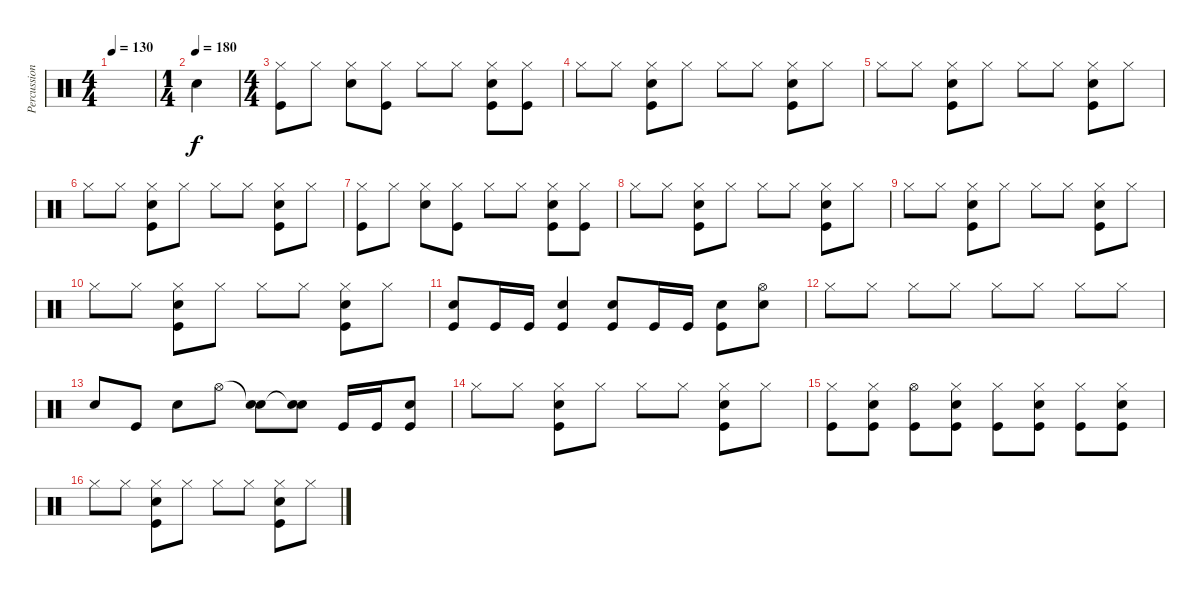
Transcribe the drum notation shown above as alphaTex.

\track ("Percussions" "Percussion") {instrument percussion}
\staff {score}
\articulation defaults
\ts (4 4)
\tempo 130
\tempo 180
\tempo 130
\clef neutral
\ks c
|
\ts (1 4)
\tempo (180)
"Snare (hit)".4 |
\ts (4 4)
("Hi-Hat (closed)" "Kick (hit)").8 "Hi-Hat (closed)".8 ("Hi-Hat (closed)" "Electric Snare (hit)").8 ("Hi-Hat (closed)" "Kick (hit)").8 "Hi-Hat (closed)".8 "Hi-Hat (closed)".8 ("Hi-Hat (closed)" "Electric Snare (hit)" "Kick (hit)").8 ("Hi-Hat (closed)" "Kick (hit)").8 |
"Hi-Hat (closed)".8 "Hi-Hat (closed)".8 ("Hi-Hat (closed)" "Electric Snare (hit)" "Kick (hit)").8 "Hi-Hat (closed)".8 "Hi-Hat (closed)".8 "Hi-Hat (closed)".8 ("Hi-Hat (closed)" "Electric Snare (hit)" "Kick (hit)").8 "Hi-Hat (closed)".8 |
"Hi-Hat (closed)".8 "Hi-Hat (closed)".8 ("Hi-Hat (closed)" "Electric Snare (hit)" "Kick (hit)").8 "Hi-Hat (closed)".8 "Hi-Hat (closed)".8 "Hi-Hat (closed)".8 ("Hi-Hat (closed)" "Electric Snare (hit)" "Kick (hit)").8 "Hi-Hat (closed)".8 |
"Hi-Hat (closed)".8 "Hi-Hat (closed)".8 ("Hi-Hat (closed)" "Electric Snare (hit)" "Kick (hit)").8 "Hi-Hat (closed)".8 "Hi-Hat (closed)".8 "Hi-Hat (closed)".8 ("Hi-Hat (closed)" "Electric Snare (hit)" "Kick (hit)").8 "Hi-Hat (closed)".8 |
("Hi-Hat (closed)" "Kick (hit)").8 "Hi-Hat (closed)".8 ("Hi-Hat (closed)" "Electric Snare (hit)").8 ("Hi-Hat (closed)" "Kick (hit)").8 "Hi-Hat (closed)".8 "Hi-Hat (closed)".8 ("Hi-Hat (closed)" "Electric Snare (hit)" "Kick (hit)").8 ("Hi-Hat (closed)" "Kick (hit)").8 |
"Hi-Hat (closed)".8 "Hi-Hat (closed)".8 ("Hi-Hat (closed)" "Electric Snare (hit)" "Kick (hit)").8 "Hi-Hat (closed)".8 "Hi-Hat (closed)".8 "Hi-Hat (closed)".8 ("Hi-Hat (closed)" "Electric Snare (hit)" "Kick (hit)").8 "Hi-Hat (closed)".8 |
"Hi-Hat (closed)".8 "Hi-Hat (closed)".8 ("Hi-Hat (closed)" "Electric Snare (hit)" "Kick (hit)").8 "Hi-Hat (closed)".8 "Hi-Hat (closed)".8 "Hi-Hat (closed)".8 ("Hi-Hat (closed)" "Electric Snare (hit)" "Kick (hit)").8 "Hi-Hat (closed)".8 |
"Hi-Hat (closed)".8 "Hi-Hat (closed)".8 ("Hi-Hat (closed)" "Electric Snare (hit)" "Kick (hit)").8 "Hi-Hat (closed)".8 "Hi-Hat (closed)".8 "Hi-Hat (closed)".8 ("Hi-Hat (closed)" "Electric Snare (hit)" "Kick (hit)").8 "Hi-Hat (closed)".8 |
("Electric Snare (hit)" "Kick (hit)").8 "Kick (hit)".16 "Kick (hit)".16 ("Electric Snare (hit)" "Kick (hit)").4 ("Electric Snare (hit)" "Kick (hit)").8 "Kick (hit)".16 "Kick (hit)".16 ("Electric Snare (hit)" "Kick (hit)").8 ("Hi-Hat (open)" "Electric Snare (hit)").8 |
"Hi-Hat (closed)".8 "Hi-Hat (closed)".8 "Hi-Hat (closed)".8 "Hi-Hat (closed)".8 "Hi-Hat (closed)".8 "Hi-Hat (closed)".8 "Hi-Hat (closed)".8 "Hi-Hat (closed)".8 |
"Electric Snare (hit)".8 "Kick (hit)".8 "Electric Snare (hit)".8 "Hi-Hat (open)".8 ("Snare (hit)"{t} "Electric Snare (hit)").8 ("Snare (hit)"{t} "Electric Snare (hit)").8 "Kick (hit)".16 "Kick (hit)".16 ("Electric Snare (hit)" "Kick (hit)").8 |
"Hi-Hat (closed)".8 "Hi-Hat (closed)".8 ("Hi-Hat (closed)" "Electric Snare (hit)" "Kick (hit)").8 "Hi-Hat (closed)".8 "Hi-Hat (closed)".8 "Hi-Hat (closed)".8 ("Hi-Hat (closed)" "Electric Snare (hit)" "Kick (hit)").8 "Hi-Hat (closed)".8 |
("Hi-Hat (closed)" "Kick (hit)").8 ("Electric Snare (hit)" "Hi-Hat (closed)" "Kick (hit)").8 ("Hi-Hat (open)" "Kick (hit)").8 ("Electric Snare (hit)" "Hi-Hat (closed)" "Kick (hit)").8 ("Hi-Hat (closed)" "Kick (hit)").8 ("Electric Snare (hit)" "Hi-Hat (closed)" "Kick (hit)").8 ("Hi-Hat (closed)" "Kick (hit)").8 ("Electric Snare (hit)" "Hi-Hat (closed)" "Kick (hit)").8 |
"Hi-Hat (closed)".8 "Hi-Hat (closed)".8 ("Hi-Hat (closed)" "Electric Snare (hit)" "Kick (hit)").8 "Hi-Hat (closed)".8 "Hi-Hat (closed)".8 "Hi-Hat (closed)".8 ("Hi-Hat (closed)" "Electric Snare (hit)" "Kick (hit)").8 "Hi-Hat (closed)".8
